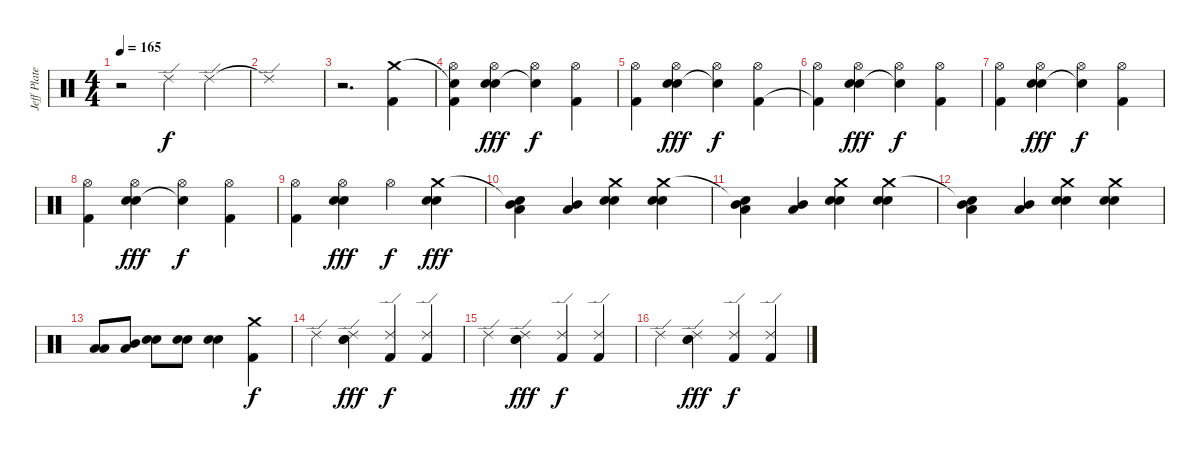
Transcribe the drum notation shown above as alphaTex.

\track ("Jeff Plate" "Jeff Plate") {instrument percussion}
\staff {score}
\articulation defaults
\ts (4 4)
\tempo 165
\clef neutral
\ks c
r.2{dy f} "Ride (edge) 2".4 "Ride (edge) 2".4 |
"Ride (edge) 2"{t}.1 |
r.2{d} ("Crash medium (hit)" "Kick (hit) 2").4 |
("Snare (hit)"{t} "Hi-Hat (open)" "Kick (hit) 2").4 ("Hi-Hat (open)" "Electric Snare (hit)" "Electric Snare (hit)").4{dy fff} ("Hi-Hat (open)" "Snare (hit)"{t}).4{dy f} ("Hi-Hat (open)" "Kick (hit) 2").4 |
("Hi-Hat (open)" "Kick (hit) 2").4 ("Hi-Hat (open)" "Electric Snare (hit)" "Electric Snare (hit)").4{dy fff} ("Hi-Hat (open)" "Snare (hit)"{t}).4{dy f} ("Hi-Hat (open)" "Kick (hit) 2").4 |
("Hi-Hat (open)" "Kick (hit) 2"{t}).4 ("Hi-Hat (open)" "Electric Snare (hit)" "Electric Snare (hit)").4{dy fff} ("Hi-Hat (open)" "Snare (hit)"{t}).4{dy f} ("Hi-Hat (open)" "Kick (hit) 2").4 |
("Hi-Hat (open)" "Kick (hit) 2").4 ("Hi-Hat (open)" "Electric Snare (hit)" "Electric Snare (hit)").4{dy fff} ("Hi-Hat (open)" "Snare (hit)"{t}).4{dy f} ("Hi-Hat (open)" "Kick (hit) 2").4 |
("Hi-Hat (open)" "Kick (hit) 2").4 ("Hi-Hat (open)" "Electric Snare (hit)" "Electric Snare (hit)").4{dy fff} ("Hi-Hat (open)" "Snare (hit)"{t}).4{dy f} ("Hi-Hat (open)" "Kick (hit) 2").4 |
("Hi-Hat (open)" "Kick (hit) 2").4 ("Hi-Hat (open)" "Electric Snare (hit)" "Electric Snare (hit)").4{dy fff} "Hi-Hat (open)".4{dy f} ("Electric Snare (hit)" "Electric Snare (hit)" "Crash medium (hit)").4{dy fff} |
("Mid Tom (hit)" "Low Tom (hit)" "Snare (hit)"{t}).4 ("Mid Tom (hit)" "Low Tom (hit)").4 ("Electric Snare (hit)" "Electric Snare (hit)" "Crash medium (hit)").4 ("Electric Snare (hit)" "Electric Snare (hit)" "Crash medium (hit)").4 |
("Mid Tom (hit)" "Low Tom (hit)" "Snare (hit)"{t}).4 ("Mid Tom (hit)" "Low Tom (hit)").4 ("Electric Snare (hit)" "Electric Snare (hit)" "Crash medium (hit)").4 ("Electric Snare (hit)" "Electric Snare (hit)" "Crash medium (hit)").4 |
("Mid Tom (hit)" "Low Tom (hit)" "Snare (hit)"{t}).4 ("Mid Tom (hit)" "Low Tom (hit)").4 ("Electric Snare (hit)" "Electric Snare (hit)" "Crash medium (hit)").4 ("Electric Snare (hit)" "Electric Snare (hit)" "Crash medium (hit)").4 |
("Low Tom (hit)" "Low Tom (hit)").8 ("Mid Tom (hit)" "Low Tom (hit)").8 ("Electric Snare (hit)" "Electric Snare (hit)").8 ("Electric Snare (hit)" "Electric Snare (hit)").8 ("Electric Snare (hit)" "Electric Snare (hit)").4 ("Crash medium (hit)" "Kick (hit) 2").4{dy f} |
"Ride (edge) 2".4 ("Ride (edge) 2" "Electric Snare (hit)" "Electric Snare (hit)").4{dy fff} ("Ride (edge) 2" "Kick (hit) 2").4{dy f} ("Ride (edge) 2" "Kick (hit) 2").4 |
"Ride (edge) 2".4 ("Ride (edge) 2" "Electric Snare (hit)" "Electric Snare (hit)").4{dy fff} ("Ride (edge) 2" "Kick (hit) 2").4{dy f} ("Ride (edge) 2" "Kick (hit) 2").4 |
"Ride (edge) 2".4 ("Ride (edge) 2" "Electric Snare (hit)" "Electric Snare (hit)").4{dy fff} ("Ride (edge) 2" "Kick (hit) 2").4{dy f} ("Ride (edge) 2" "Kick (hit) 2").4
